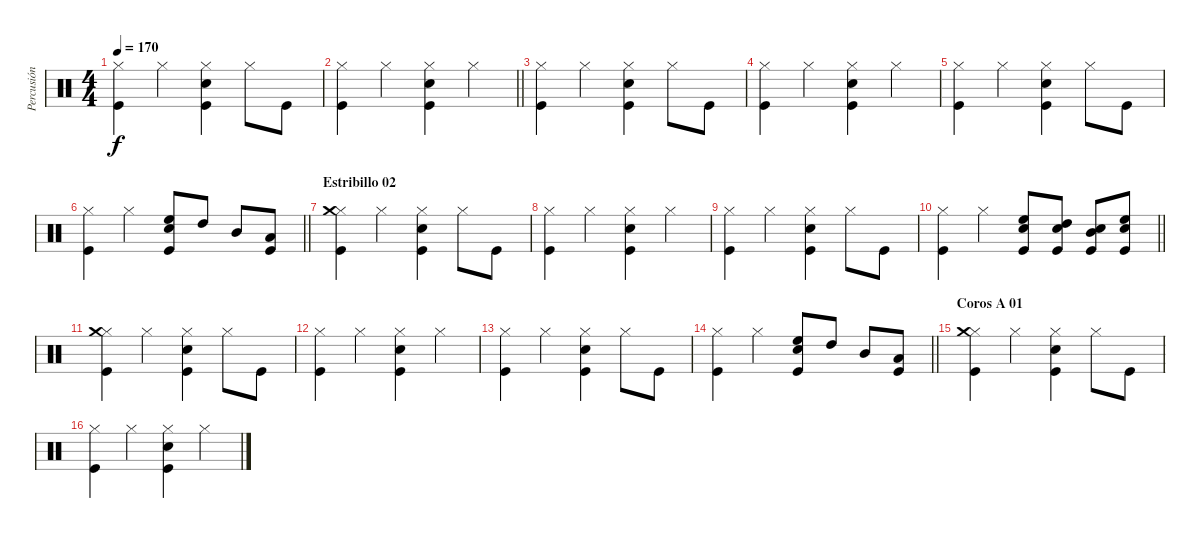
\track ("Percusión" "Percusión") {instrument percussion}
\staff {score}
\articulation defaults
\ts (4 4)
\tempo 170
\clef neutral
\ks c
("Hi-Hat (closed)" "Kick (hit)").4{dy f} "Hi-Hat (closed)".4 ("Hi-Hat (closed)" "Snare (hit) 2" "Kick (hit)").4 "Hi-Hat (closed)".8 "Kick (hit)".8 |
\barLineRight lightlight
("Hi-Hat (closed)" "Kick (hit)").4 "Hi-Hat (closed)".4 ("Hi-Hat (closed)" "Snare (hit) 2" "Kick (hit)").4 "Hi-Hat (closed)".4 |
("Hi-Hat (closed)" "Kick (hit)").4 "Hi-Hat (closed)".4 ("Hi-Hat (closed)" "Snare (hit) 2" "Kick (hit)").4 "Hi-Hat (closed)".8 "Kick (hit)".8 |
("Hi-Hat (closed)" "Kick (hit)").4 "Hi-Hat (closed)".4 ("Hi-Hat (closed)" "Snare (hit) 2" "Kick (hit)").4 "Hi-Hat (closed)".4 |
("Hi-Hat (closed)" "Kick (hit)").4 "Hi-Hat (closed)".4 ("Hi-Hat (closed)" "Snare (hit) 2" "Kick (hit)").4 "Hi-Hat (closed)".8 "Kick (hit)".8 |
\barLineRight lightlight
("Hi-Hat (closed)" "Kick (hit)").4 "Hi-Hat (closed)".4 ("High Floor Tom (hit)" "Snare (hit) 2" "Kick (hit)").8 "High Tom (hit)".8 "Mid Tom (hit)".8 ("Low Tom (hit)" "Kick (hit)").8 |
\section ("" "Estribillo 02")
("Hi-Hat (closed)" "Crash medium (hit)" "Kick (hit)").4 "Hi-Hat (closed)".4 ("Hi-Hat (closed)" "Snare (hit) 2" "Kick (hit)").4 "Hi-Hat (closed)".8 "Kick (hit)".8 |
("Hi-Hat (closed)" "Kick (hit)").4 "Hi-Hat (closed)".4 ("Hi-Hat (closed)" "Snare (hit) 2" "Kick (hit)").4 "Hi-Hat (closed)".4 |
("Hi-Hat (closed)" "Kick (hit)").4 "Hi-Hat (closed)".4 ("Hi-Hat (closed)" "Snare (hit) 2" "Kick (hit)").4 "Hi-Hat (closed)".8 "Kick (hit)".8 |
\barLineRight lightlight
("Hi-Hat (closed)" "Kick (hit)").4 "Hi-Hat (closed)".4 ("Snare (hit) 2" "High Floor Tom (hit)" "Kick (hit)").8 ("Snare (hit) 2" "High Tom (hit)" "Kick (hit)").8 ("Snare (hit) 2" "Mid Tom (hit)" "Kick (hit)").8 ("Snare (hit) 2" "High Floor Tom (hit)" "Kick (hit)").8 |
("Hi-Hat (closed)" "Crash medium (hit)" "Kick (hit)").4 "Hi-Hat (closed)".4 ("Hi-Hat (closed)" "Snare (hit) 2" "Kick (hit)").4 "Hi-Hat (closed)".8 "Kick (hit)".8 |
("Hi-Hat (closed)" "Kick (hit)").4 "Hi-Hat (closed)".4 ("Hi-Hat (closed)" "Snare (hit) 2" "Kick (hit)").4 "Hi-Hat (closed)".4 |
("Hi-Hat (closed)" "Kick (hit)").4 "Hi-Hat (closed)".4 ("Hi-Hat (closed)" "Snare (hit) 2" "Kick (hit)").4 "Hi-Hat (closed)".8 "Kick (hit)".8 |
\barLineRight lightlight
("Hi-Hat (closed)" "Kick (hit)").4 "Hi-Hat (closed)".4 ("High Floor Tom (hit)" "Snare (hit) 2" "Kick (hit)").8 "High Tom (hit)".8 "Mid Tom (hit)".8 ("Low Tom (hit)" "Kick (hit)").8 |
\section ("" "Coros A 01")
("Hi-Hat (closed)" "Crash medium (hit)" "Kick (hit)").4 "Hi-Hat (closed)".4 ("Hi-Hat (closed)" "Snare (hit) 2" "Kick (hit)").4 "Hi-Hat (closed)".8 "Kick (hit)".8 |
("Hi-Hat (closed)" "Kick (hit)").4 "Hi-Hat (closed)".4 ("Hi-Hat (closed)" "Snare (hit) 2" "Kick (hit)").4 "Hi-Hat (closed)".4
